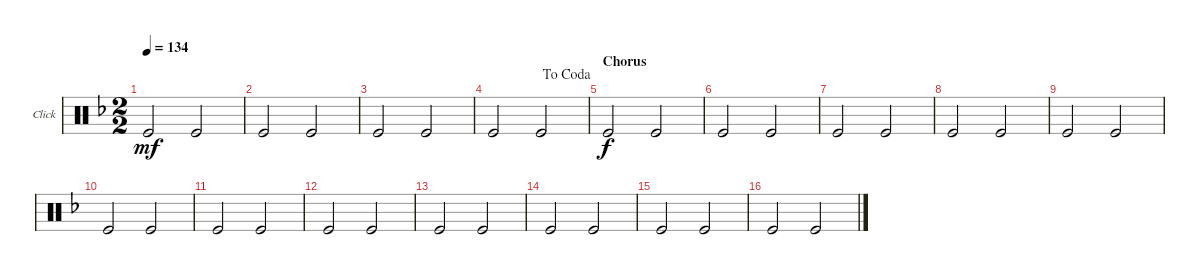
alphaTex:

\bracketExtendMode groupsimilarinstruments
\useSystemSignSeparator
\multiTrackTrackNamePolicy allsystems
\firstSystemTrackNameOrientation horizontal
\otherSystemsTrackNameOrientation horizontal
\track ("Click" "Click") {instrument percussion}
\staff {score}
\articulation defaults
\ts (2 2)
\scale
0.5
\tempo 134
\accidentals auto
\clef neutral
\ottava regular
\simile none
\scale
0.25
\ks f "Kick (hit)".2{dy mf} "Kick (hit)".2
|
\scale
0.5
\scale
0.25 "Kick (hit)".2 "Kick (hit)".2 |
\scale
0.5
\scale
0.25 "Kick (hit)".2 "Kick (hit)".2 |
\scale
0.5
\jump dacoda
\scale
0.25 "Kick (hit)".2 "Kick (hit)".2 |
\section ("" "Chorus")
\scale
0.5
\scale
0.324713 "Kick (hit)".2{dy f} "Kick (hit)".2 |
\scale
0.5
\scale
0.204023 "Kick (hit)".2 "Kick (hit)".2 |
\scale
0.38961
\scale
0.221264 "Kick (hit)".2 "Kick (hit)".2 |
\scale
0.61039
\scale
0.25 "Kick (hit)".2 "Kick (hit)".2 |
\scale
0.5
\scale
0.25 "Kick (hit)".2 "Kick (hit)".2 |
\scale
0.5
\scale
0.25 "Kick (hit)".2 "Kick (hit)".2 |
\scale
0.5
\scale
0.25 "Kick (hit)".2 "Kick (hit)".2 |
\scale
0.5
\scale
0.25 "Kick (hit)".2 "Kick (hit)".2 |
\scale
0.5
\scale
0.321839 "Kick (hit)".2 "Kick (hit)".2 |
\scale
0.5
\scale
0.227011 "Kick (hit)".2 "Kick (hit)".2 |
\scale
0.5
\scale
0.201149 "Kick (hit)".2 "Kick (hit)".2 |
\scale
0.5
\scale
0.25 "Kick (hit)".2 "Kick (hit)".2
